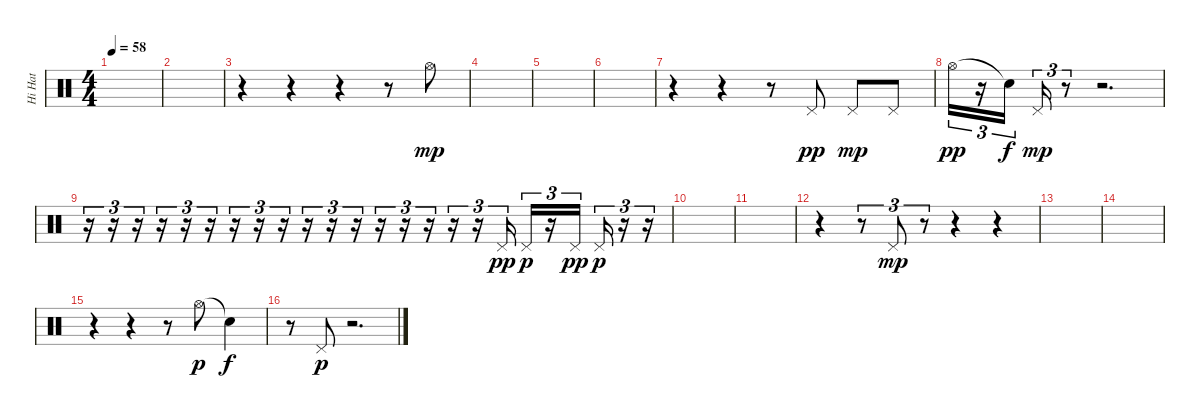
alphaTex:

\track ("Hi Hat" "Hi Hat") {instrument percussion}
\staff {score}
\articulation defaults
\ts (4 4)
\tempo 58
\clef neutral
\ks c
|
|
r.4 r.4 r.4 r.8 "Hi-Hat (open)".8{dy mp} |
|
|
|
r.4 r.4 r.8 "Pedal Hi-Hat (hit)".8{dy pp} "Pedal Hi-Hat (hit)".8{dy mp} "Pedal Hi-Hat (hit)".8 |
"Hi-Hat (open)".16{tu (3 2) dy pp} r.16{tu (3 2)} "Snare (hit)"{t}.16{tu (3 2) dy f} "Pedal Hi-Hat (hit)".16{tu (3 2) dy mp} r.8{tu (3 2)} r.2{d} |
r.16{tu (3 2)} r.16{tu (3 2)} r.16{tu (3 2)} r.16{tu (3 2)} r.16{tu (3 2)} r.16{tu (3 2)} r.16{tu (3 2)} r.16{tu (3 2)} r.16{tu (3 2)} r.16{tu (3 2)} r.16{tu (3 2)} r.16{tu (3 2)} r.16{tu (3 2)} r.16{tu (3 2)} r.16{tu (3 2)} r.16{tu (3 2)} r.16{tu (3 2)} "Pedal Hi-Hat (hit)".16{tu (3 2) dy pp} "Pedal Hi-Hat (hit)".16{tu (3 2) dy p} r.16{tu (3 2)} "Pedal Hi-Hat (hit)".16{tu (3 2) dy pp} "Pedal Hi-Hat (hit)".16{tu (3 2) dy p} r.16{tu (3 2)} r.16{tu (3 2)} |
|
|
r.4 r.8{tu (3 2)} "Pedal Hi-Hat (hit)".8{tu (3 2) dy mp} r.8{tu (3 2)} r.4 r.4 |
|
|
r.4 r.4 r.8 "Hi-Hat (open)".8{dy p} "Snare (hit)"{t}.4{dy f} |
r.8 "Pedal Hi-Hat (hit)".8{dy p} r.2{d}
